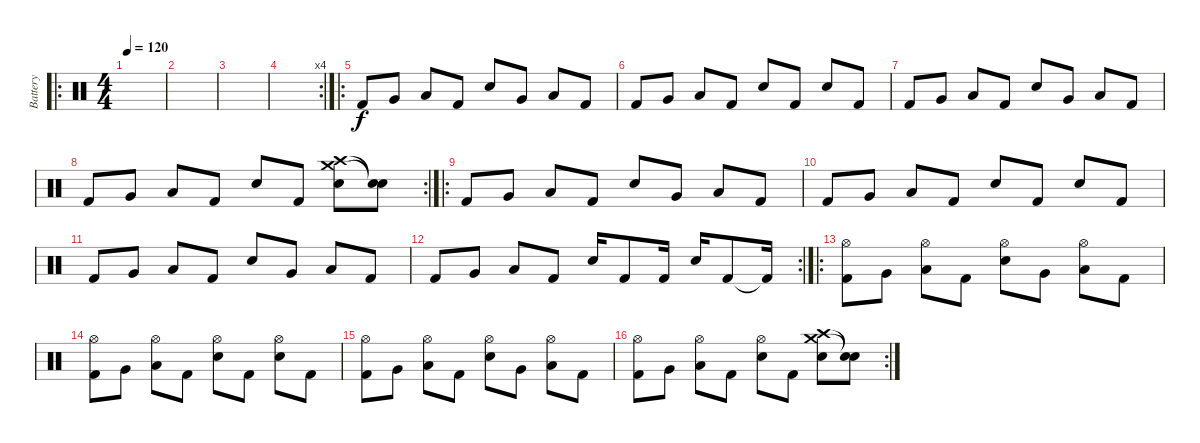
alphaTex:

\track ("Battery" "Battery") {instrument percussion}
\staff {score}
\articulation defaults
\ro
\ts (4 4)
\tempo 120
\clef neutral
\ks c
|
|
|
\rc 4
|
\ro "Kick (hit) 2".8 "Very Low Tom (hit)".8 "Low Tom (hit)".8 "Kick (hit) 2".8 "Electric Snare (hit)".8 "Very Low Tom (hit)".8 "Low Tom (hit)".8 "Kick (hit) 2".8
|
"Kick (hit) 2".8 "Very Low Tom (hit)".8 "Low Tom (hit)".8 "Kick (hit) 2".8 "Electric Snare (hit)".8 "Kick (hit) 2".8 "Electric Snare (hit)".8 "Kick (hit) 2".8 |
"Kick (hit) 2".8 "Very Low Tom (hit)".8 "Low Tom (hit)".8 "Kick (hit) 2".8 "Electric Snare (hit)".8 "Very Low Tom (hit)".8 "Low Tom (hit)".8 "Kick (hit) 2".8 |
\rc 2 "Kick (hit) 2".8 "Very Low Tom (hit)".8 "Low Tom (hit)".8 "Kick (hit) 2".8 "Electric Snare (hit)".8 "Kick (hit) 2".8
("Crash high (hit)" "Crash medium (hit)" "Electric Snare (hit)").8 ("Snare (hit)"{t} "Snare (hit)"{t}).8 |
\ro "Kick (hit) 2".8 "Very Low Tom (hit)".8 "Low Tom (hit)".8 "Kick (hit) 2".8 "Electric Snare (hit)".8 "Very Low Tom (hit)".8 "Low Tom (hit)".8 "Kick (hit) 2".8
|
"Kick (hit) 2".8 "Very Low Tom (hit)".8 "Low Tom (hit)".8 "Kick (hit) 2".8 "Electric Snare (hit)".8 "Kick (hit) 2".8 "Electric Snare (hit)".8 "Kick (hit) 2".8 |
"Kick (hit) 2".8 "Very Low Tom (hit)".8 "Low Tom (hit)".8 "Kick (hit) 2".8 "Electric Snare (hit)".8 "Very Low Tom (hit)".8 "Low Tom (hit)".8 "Kick (hit) 2".8 |
\rc 2 "Kick (hit) 2".8 "Very Low Tom (hit)".8 "Low Tom (hit)".8 "Kick (hit) 2".8 "Electric Snare (hit)".16 "Kick (hit) 2".8 "Kick (hit) 2".16 "Electric Snare (hit)".16 "Kick (hit) 2".8 "Kick (hit) 2"{t}.16
|
\ro
("Hi-Hat (open)" "Kick (hit) 2").8 "Very Low Tom (hit)".8 ("Hi-Hat (open)" "Low Tom (hit)").8 "Kick (hit) 2".8 ("Hi-Hat (open)" "Electric Snare (hit)").8 "Very Low Tom (hit)".8 ("Hi-Hat (open)" "Low Tom (hit)").8 "Kick (hit) 2".8 |
("Hi-Hat (open)" "Kick (hit) 2").8 "Very Low Tom (hit)".8 ("Hi-Hat (open)" "Low Tom (hit)").8 "Kick (hit) 2".8 ("Hi-Hat (open)" "Electric Snare (hit)").8 "Kick (hit) 2".8 ("Hi-Hat (open)" "Electric Snare (hit)").8 "Kick (hit) 2".8 |
("Hi-Hat (open)" "Kick (hit) 2").8 "Very Low Tom (hit)".8 ("Hi-Hat (open)" "Low Tom (hit)").8 "Kick (hit) 2".8 ("Hi-Hat (open)" "Electric Snare (hit)").8 "Very Low Tom (hit)".8 ("Hi-Hat (open)" "Low Tom (hit)").8 "Kick (hit) 2".8 |
\rc 2
("Hi-Hat (open)" "Kick (hit) 2").8 "Very Low Tom (hit)".8 ("Hi-Hat (open)" "Low Tom (hit)").8 "Kick (hit) 2".8 ("Hi-Hat (open)" "Electric Snare (hit)").8 "Kick (hit) 2".8 ("Crash high (hit)" "Crash medium (hit)" "Electric Snare (hit)").8 ("Snare (hit)"{t} "Snare (hit)"{t}).8
